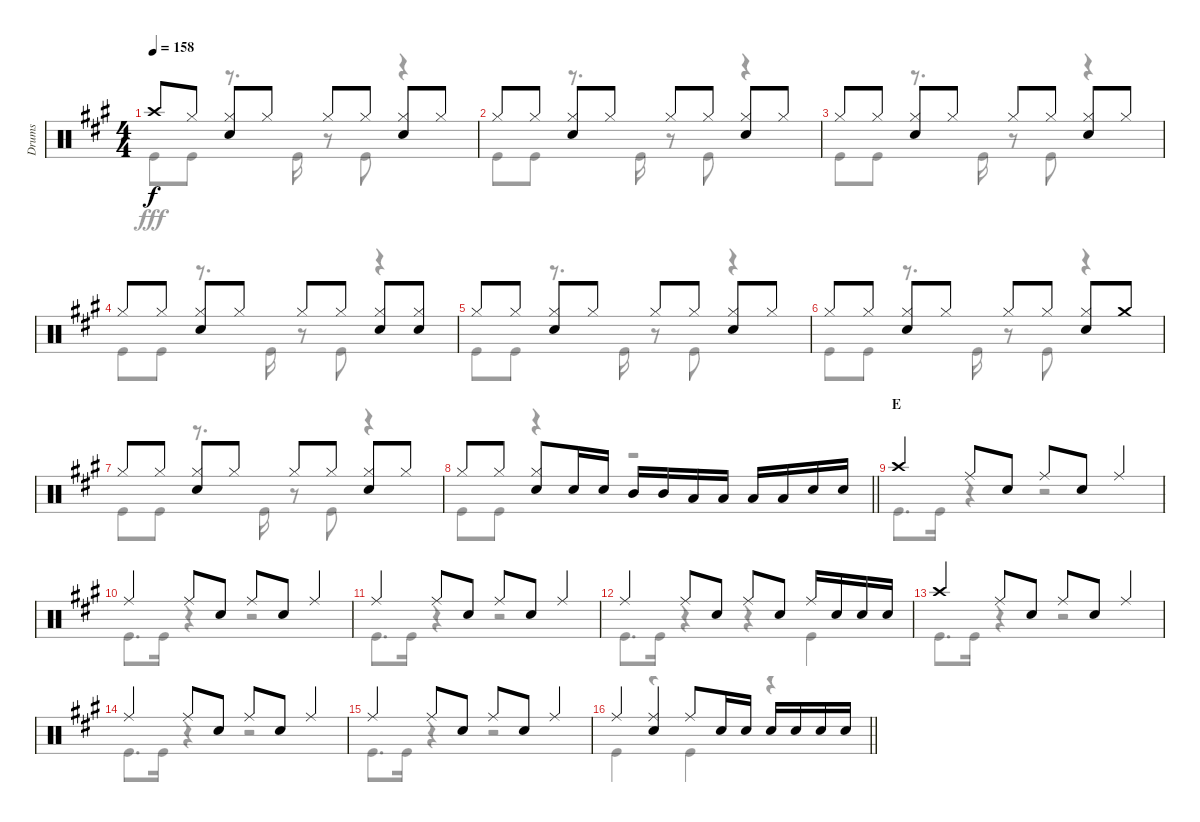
\track ("Drums" "Drums") {instrument percussion}
\staff {score}
\articulation defaults
\voice
\ts (4 4)
\tempo 158
\clef neutral
\ks a "Crash high (hit)".8{dy f} "Hi-Hat (closed)".8
("Hi-Hat (closed)" "Snare (hit) 2").8 "Hi-Hat (closed)".8 "Hi-Hat (closed)".8 "Hi-Hat (closed)".8 ("Hi-Hat (closed)" "Snare (hit) 2").8 "Hi-Hat (closed)".8 |
"Hi-Hat (closed)".8 "Hi-Hat (closed)".8 ("Hi-Hat (closed)" "Snare (hit) 2").8 "Hi-Hat (closed)".8 "Hi-Hat (closed)".8 "Hi-Hat (closed)".8 ("Hi-Hat (closed)" "Snare (hit) 2").8 "Hi-Hat (closed)".8 |
"Hi-Hat (closed)".8 "Hi-Hat (closed)".8 ("Hi-Hat (closed)" "Snare (hit) 2").8 "Hi-Hat (closed)".8 "Hi-Hat (closed)".8 "Hi-Hat (closed)".8 ("Hi-Hat (closed)" "Snare (hit) 2").8 "Hi-Hat (closed)".8 |
"Hi-Hat (closed)".8 "Hi-Hat (closed)".8 ("Hi-Hat (closed)" "Snare (hit) 2").8 "Hi-Hat (closed)".8 "Hi-Hat (closed)".8 "Hi-Hat (closed)".8 ("Hi-Hat (closed)" "Snare (hit) 2").8 ("Hi-Hat (closed)" "Snare (hit) 2").8 |
"Hi-Hat (closed)".8 "Hi-Hat (closed)".8 ("Hi-Hat (closed)" "Snare (hit) 2").8 "Hi-Hat (closed)".8 "Hi-Hat (closed)".8 "Hi-Hat (closed)".8 ("Hi-Hat (closed)" "Snare (hit) 2").8 "Hi-Hat (closed)".8 |
"Hi-Hat (closed)".8 "Hi-Hat (closed)".8 ("Hi-Hat (closed)" "Snare (hit) 2").8 "Hi-Hat (closed)".8 "Hi-Hat (closed)".8 "Hi-Hat (closed)".8 ("Hi-Hat (closed)" "Snare (hit) 2").8 "Crash medium (hit)".8 |
"Hi-Hat (closed)".8 "Hi-Hat (closed)".8 ("Hi-Hat (closed)" "Snare (hit) 2").8 "Hi-Hat (closed)".8 "Hi-Hat (closed)".8 "Hi-Hat (closed)".8 ("Hi-Hat (closed)" "Snare (hit) 2").8 "Hi-Hat (closed)".8 |
\barLineRight lightlight "Hi-Hat (closed)".8 "Hi-Hat (closed)".8
("Hi-Hat (closed)" "Snare (hit) 2").8 "Snare (hit) 2".16 "Snare (hit) 2".16 "Mid Tom (hit)".16 "Mid Tom (hit)".16 "Low Tom (hit)".16 "Low Tom (hit)".16 "Low Tom (hit)".16 "Low Tom (hit)".16 "Snare (hit) 2".16 "Snare (hit) 2".16 |
\section ("" "E")
"Crash high (hit)".4 "Ride (middle)".8 "Snare (hit) 2".8 "Ride (middle)".8 "Snare (hit) 2".8 "Ride (middle)".4 |
"Ride (middle)".4 "Ride (middle)".8 "Snare (hit) 2".8 "Ride (middle)".8 "Snare (hit) 2".8 "Ride (middle)".4 |
"Ride (middle)".4 "Ride (middle)".8 "Snare (hit) 2".8 "Ride (middle)".8 "Snare (hit) 2".8 "Ride (middle)".4 |
"Ride (middle)".4 "Ride (middle)".8 "Snare (hit) 2".8 "Ride (middle)".8 "Snare (hit) 2".8 "Ride (middle)".16 "Snare (hit) 2".16 "Snare (hit) 2".16 "Snare (hit) 2".16 |
"Crash high (hit)".4 "Ride (middle)".8 "Snare (hit) 2".8 "Ride (middle)".8 "Snare (hit) 2".8 "Ride (middle)".4 |
"Ride (middle)".4 "Ride (middle)".8 "Snare (hit) 2".8 "Ride (middle)".8 "Snare (hit) 2".8 "Ride (middle)".4 |
"Ride (middle)".4 "Ride (middle)".8 "Snare (hit) 2".8 "Ride (middle)".8 "Snare (hit) 2".8 "Ride (middle)".4 |
\barLineRight lightlight "Ride (middle)".4
("Ride (middle)" "Snare (hit) 2").4 "Ride (middle)".8 "Snare (hit) 2".16 "Snare (hit) 2".16 "Snare (hit) 2".16 "Snare (hit) 2".16 "Snare (hit) 2".16 "Snare (hit) 2".16
\voice
\clef neutral
\ottava regular
\simile none
\ks a "Kick (hit)".8{dy fff} "Kick (hit)".8
r.8{d} "Kick (hit)".16 r.8 "Kick (hit)".8 r.4 |
"Kick (hit)".8 "Kick (hit)".8 r.8{d} "Kick (hit)".16 r.8 "Kick (hit)".8 r.4 |
"Kick (hit)".8 "Kick (hit)".8 r.8{d} "Kick (hit)".16 r.8 "Kick (hit)".8 r.4 |
"Kick (hit)".8 "Kick (hit)".8 r.8{d} "Kick (hit)".16 r.8 "Kick (hit)".8 r.4 |
"Kick (hit)".8 "Kick (hit)".8 r.8{d} "Kick (hit)".16 r.8 "Kick (hit)".8 r.4 |
"Kick (hit)".8 "Kick (hit)".8 r.8{d} "Kick (hit)".16 r.8 "Kick (hit)".8 r.4 |
"Kick (hit)".8 "Kick (hit)".8 r.8{d} "Kick (hit)".16 r.8 "Kick (hit)".8 r.4 |
\barLineRight lightlight "Kick (hit)".8 "Kick (hit)".8
r.4 r.2 |
"Kick (hit)".8{d} "Kick (hit)".16 r.4 r.2 |
"Kick (hit)".8{d} "Kick (hit)".16 r.4 r.2 |
"Kick (hit)".8{d} "Kick (hit)".16 r.4 r.2 |
"Kick (hit)".8{d} "Kick (hit)".16 r.4 r.4 "Kick (hit)".4 |
"Kick (hit)".8{d} "Kick (hit)".16 r.4 r.2 |
"Kick (hit)".8{d} "Kick (hit)".16 r.4 r.2 |
"Kick (hit)".8{d} "Kick (hit)".16 r.4 r.2 |
\barLineRight lightlight "Kick (hit)".4
r.4 "Kick (hit)".4 r.4
